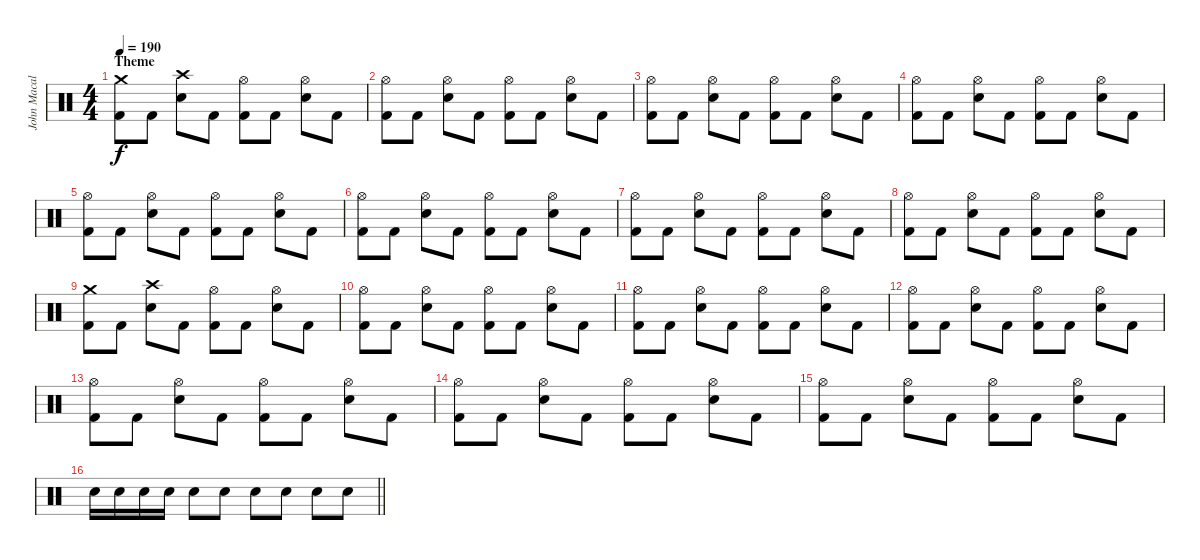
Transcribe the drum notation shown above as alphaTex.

\track ("John Macaluso" "John Macal") {instrument percussion}
\staff {score}
\articulation defaults
\ts (4 4)
\section ("" "Theme")
\tempo 190
\clef neutral
\ks c
("Crash medium (hit)" "Kick (hit) 2").8{dy f} "Kick (hit) 2".8 ("Crash high (hit)" "Snare (hit) 2").8 "Kick (hit) 2".8 ("Hi-Hat (open)" "Kick (hit) 2").8 "Kick (hit) 2".8 ("Hi-Hat (open)" "Snare (hit) 2").8 "Kick (hit) 2".8 |
("Hi-Hat (open)" "Kick (hit) 2").8 "Kick (hit) 2".8 ("Hi-Hat (open)" "Snare (hit) 2").8 "Kick (hit) 2".8 ("Hi-Hat (open)" "Kick (hit) 2").8 "Kick (hit) 2".8 ("Hi-Hat (open)" "Snare (hit) 2").8 "Kick (hit) 2".8 |
("Hi-Hat (open)" "Kick (hit) 2").8 "Kick (hit) 2".8 ("Hi-Hat (open)" "Snare (hit) 2").8 "Kick (hit) 2".8 ("Hi-Hat (open)" "Kick (hit) 2").8 "Kick (hit) 2".8 ("Hi-Hat (open)" "Snare (hit) 2").8 "Kick (hit) 2".8 |
("Hi-Hat (open)" "Kick (hit) 2").8 "Kick (hit) 2".8 ("Hi-Hat (open)" "Snare (hit) 2").8 "Kick (hit) 2".8 ("Hi-Hat (open)" "Kick (hit) 2").8 "Kick (hit) 2".8 ("Hi-Hat (open)" "Snare (hit) 2").8 "Kick (hit) 2".8 |
("Hi-Hat (open)" "Kick (hit) 2").8 "Kick (hit) 2".8 ("Hi-Hat (open)" "Snare (hit) 2").8 "Kick (hit) 2".8 ("Hi-Hat (open)" "Kick (hit) 2").8 "Kick (hit) 2".8 ("Hi-Hat (open)" "Snare (hit) 2").8 "Kick (hit) 2".8 |
("Hi-Hat (open)" "Kick (hit) 2").8 "Kick (hit) 2".8 ("Hi-Hat (open)" "Snare (hit) 2").8 "Kick (hit) 2".8 ("Hi-Hat (open)" "Kick (hit) 2").8 "Kick (hit) 2".8 ("Hi-Hat (open)" "Snare (hit) 2").8 "Kick (hit) 2".8 |
("Hi-Hat (open)" "Kick (hit) 2").8 "Kick (hit) 2".8 ("Hi-Hat (open)" "Snare (hit) 2").8 "Kick (hit) 2".8 ("Hi-Hat (open)" "Kick (hit) 2").8 "Kick (hit) 2".8 ("Hi-Hat (open)" "Snare (hit) 2").8 "Kick (hit) 2".8 |
("Hi-Hat (open)" "Kick (hit) 2").8 "Kick (hit) 2".8 ("Hi-Hat (open)" "Snare (hit) 2").8 "Kick (hit) 2".8 ("Hi-Hat (open)" "Kick (hit) 2").8 "Kick (hit) 2".8 ("Hi-Hat (open)" "Snare (hit) 2").8 "Kick (hit) 2".8 |
("Crash medium (hit)" "Kick (hit) 2").8 "Kick (hit) 2".8 ("Crash high (hit)" "Snare (hit) 2").8 "Kick (hit) 2".8 ("Hi-Hat (open)" "Kick (hit) 2").8 "Kick (hit) 2".8 ("Hi-Hat (open)" "Snare (hit) 2").8 "Kick (hit) 2".8 |
("Hi-Hat (open)" "Kick (hit) 2").8 "Kick (hit) 2".8 ("Hi-Hat (open)" "Snare (hit) 2").8 "Kick (hit) 2".8 ("Hi-Hat (open)" "Kick (hit) 2").8 "Kick (hit) 2".8 ("Hi-Hat (open)" "Snare (hit) 2").8 "Kick (hit) 2".8 |
("Hi-Hat (open)" "Kick (hit) 2").8 "Kick (hit) 2".8 ("Hi-Hat (open)" "Snare (hit) 2").8 "Kick (hit) 2".8 ("Hi-Hat (open)" "Kick (hit) 2").8 "Kick (hit) 2".8 ("Hi-Hat (open)" "Snare (hit) 2").8 "Kick (hit) 2".8 |
("Hi-Hat (open)" "Kick (hit) 2").8 "Kick (hit) 2".8 ("Hi-Hat (open)" "Snare (hit) 2").8 "Kick (hit) 2".8 ("Hi-Hat (open)" "Kick (hit) 2").8 "Kick (hit) 2".8 ("Hi-Hat (open)" "Snare (hit) 2").8 "Kick (hit) 2".8 |
("Hi-Hat (open)" "Kick (hit) 2").8 "Kick (hit) 2".8 ("Hi-Hat (open)" "Snare (hit) 2").8 "Kick (hit) 2".8 ("Hi-Hat (open)" "Kick (hit) 2").8 "Kick (hit) 2".8 ("Hi-Hat (open)" "Snare (hit) 2").8 "Kick (hit) 2".8 |
("Hi-Hat (open)" "Kick (hit) 2").8 "Kick (hit) 2".8 ("Hi-Hat (open)" "Snare (hit) 2").8 "Kick (hit) 2".8 ("Hi-Hat (open)" "Kick (hit) 2").8 "Kick (hit) 2".8 ("Hi-Hat (open)" "Snare (hit) 2").8 "Kick (hit) 2".8 |
("Hi-Hat (open)" "Kick (hit) 2").8 "Kick (hit) 2".8 ("Hi-Hat (open)" "Snare (hit) 2").8 "Kick (hit) 2".8 ("Hi-Hat (open)" "Kick (hit) 2").8 "Kick (hit) 2".8 ("Hi-Hat (open)" "Snare (hit) 2").8 "Kick (hit) 2".8 |
\barLineRight lightlight "Snare (hit) 2".16 "Snare (hit) 2".16 "Snare (hit) 2".16 "Snare (hit) 2".16 "Snare (hit) 2".8 "Snare (hit) 2".8 "Snare (hit) 2".8 "Snare (hit) 2".8 "Snare (hit) 2".8 "Snare (hit) 2".8
